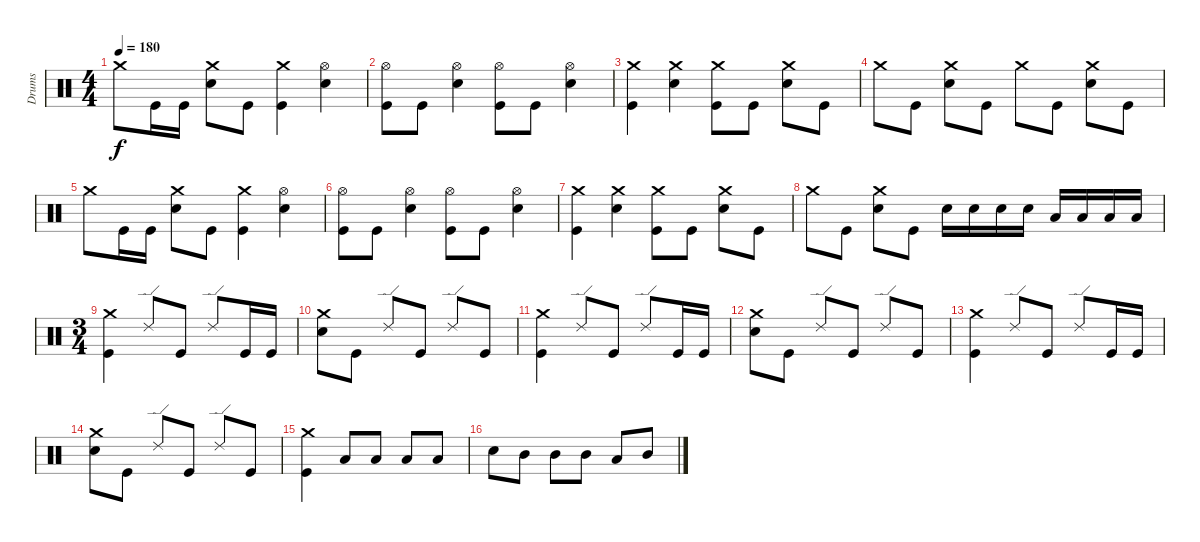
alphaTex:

\track ("Drums" "Drums") {instrument percussion}
\staff {score}
\articulation defaults
\ts (4 4)
\tempo 180
\clef neutral
\ks c "Crash medium (hit)".8{dy f} "Kick (hit)".16 "Kick (hit)".16
("Crash medium (hit)" "Electric Snare (hit)").8 "Kick (hit)".8 ("Crash medium (hit)" "Kick (hit)").4 ("Hi-Hat (open)" "Electric Snare (hit)").4 |
("Hi-Hat (open)" "Kick (hit)").8 "Kick (hit)".8 ("Hi-Hat (open)" "Electric Snare (hit)").4 ("Hi-Hat (open)" "Kick (hit)").8 "Kick (hit)".8 ("Hi-Hat (open)" "Electric Snare (hit)").4 |
("Crash medium (hit)" "Kick (hit)").4 ("Crash medium (hit)" "Electric Snare (hit)").4 ("Crash medium (hit)" "Kick (hit)").8 "Kick (hit)".8 ("Crash medium (hit)" "Electric Snare (hit)").8 "Kick (hit)".8 |
"Crash medium (hit)".8 "Kick (hit)".8 ("Crash medium (hit)" "Electric Snare (hit)").8 "Kick (hit)".8 "Crash medium (hit)".8 "Kick (hit)".8 ("Crash medium (hit)" "Electric Snare (hit)").8 "Kick (hit)".8 |
"Crash medium (hit)".8 "Kick (hit)".16 "Kick (hit)".16 ("Crash medium (hit)" "Electric Snare (hit)").8 "Kick (hit)".8 ("Crash medium (hit)" "Kick (hit)").4 ("Hi-Hat (open)" "Electric Snare (hit)").4 |
("Hi-Hat (open)" "Kick (hit)").8 "Kick (hit)".8 ("Hi-Hat (open)" "Electric Snare (hit)").4 ("Hi-Hat (open)" "Kick (hit)").8 "Kick (hit)".8 ("Hi-Hat (open)" "Electric Snare (hit)").4 |
("Crash medium (hit)" "Kick (hit)").4 ("Crash medium (hit)" "Electric Snare (hit)").4 ("Crash medium (hit)" "Kick (hit)").8 "Kick (hit)".8 ("Crash medium (hit)" "Electric Snare (hit)").8 "Kick (hit)".8 |
"Crash medium (hit)".8 "Kick (hit)".8 ("Crash medium (hit)" "Electric Snare (hit)").8 "Kick (hit)".8 "Electric Snare (hit)".16 "Electric Snare (hit)".16 "Electric Snare (hit)".16 "Electric Snare (hit)".16 "Low Tom (hit)".16 "Low Tom (hit)".16 "Low Tom (hit)".16 "Low Tom (hit)".16 |
\ts (3 4)
("Crash medium (hit)" "Kick (hit)").4 "Ride (edge) 2".8 "Kick (hit)".8 "Ride (edge) 2".8 "Kick (hit)".16 "Kick (hit)".16 |
("Crash medium (hit)" "Electric Snare (hit)").8 "Kick (hit)".8 "Ride (edge) 2".8 "Kick (hit)".8 "Ride (edge) 2".8 "Kick (hit)".8 |
("Crash medium (hit)" "Kick (hit)").4 "Ride (edge) 2".8 "Kick (hit)".8 "Ride (edge) 2".8 "Kick (hit)".16 "Kick (hit)".16 |
("Crash medium (hit)" "Electric Snare (hit)").8 "Kick (hit)".8 "Ride (edge) 2".8 "Kick (hit)".8 "Ride (edge) 2".8 "Kick (hit)".8 |
("Crash medium (hit)" "Kick (hit)").4 "Ride (edge) 2".8 "Kick (hit)".8 "Ride (edge) 2".8 "Kick (hit)".16 "Kick (hit)".16 |
("Crash medium (hit)" "Electric Snare (hit)").8 "Kick (hit)".8 "Ride (edge) 2".8 "Kick (hit)".8 "Ride (edge) 2".8 "Kick (hit)".8 |
("Crash medium (hit)" "Kick (hit)").4 "Low Floor Tom (hit)".8 "Low Floor Tom (hit)".8 "Low Tom (hit)".8 "Low Tom (hit)".8 |
"Electric Snare (hit)".8 "Mid Tom (hit)".8 "Mid Tom (hit)".8 "Mid Tom (hit)".8 "Low Floor Tom (hit)".8 "Mid Tom (hit)".8
